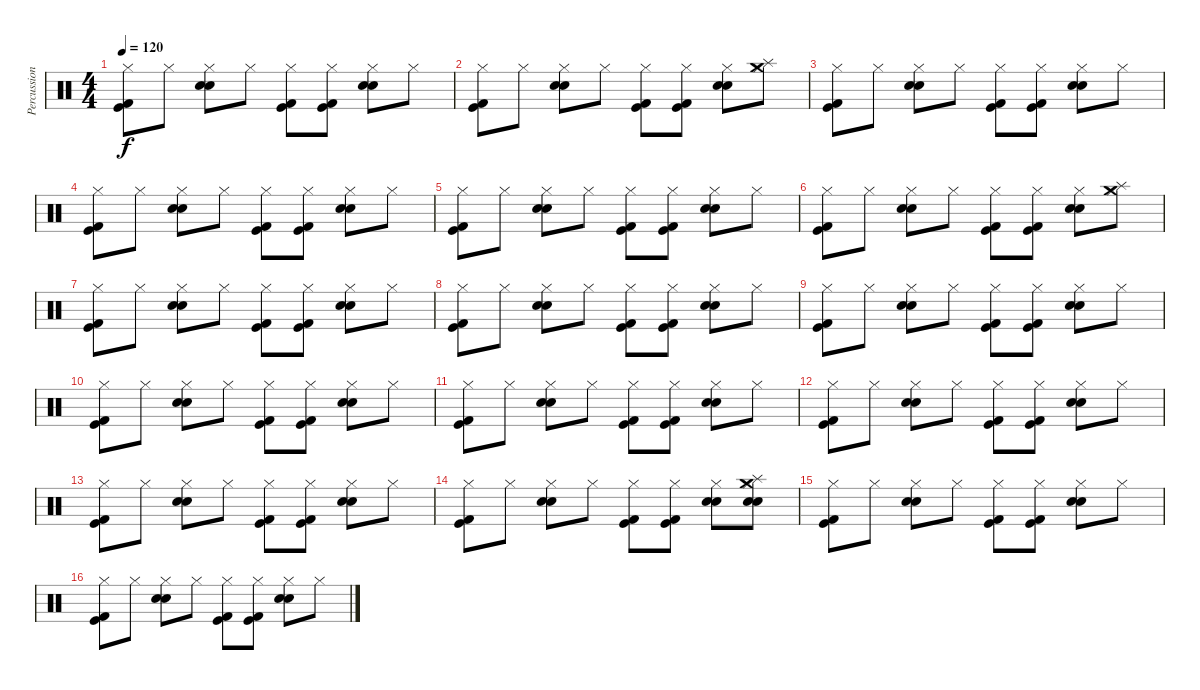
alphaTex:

\track ("Percussions" "Percussion") {instrument percussion}
\staff {score}
\articulation defaults
\ts (4 4)
\tempo 120
\clef neutral
\ks c
("Hi-Hat (closed)" "Kick (hit)" "Kick (hit) 2").8{dy f} "Hi-Hat (closed)".8 ("Hi-Hat (closed)" "Snare (hit) 2" "Electric Snare (hit)").8 "Hi-Hat (closed)".8 ("Hi-Hat (closed)" "Kick (hit)" "Kick (hit) 2").8 ("Hi-Hat (closed)" "Kick (hit)" "Kick (hit) 2").8 ("Hi-Hat (closed)" "Snare (hit) 2" "Electric Snare (hit)").8 "Hi-Hat (closed)".8 |
("Hi-Hat (closed)" "Kick (hit)" "Kick (hit) 2").8 "Hi-Hat (closed)".8 ("Hi-Hat (closed)" "Snare (hit) 2" "Electric Snare (hit)").8 "Hi-Hat (closed)".8 ("Hi-Hat (closed)" "Kick (hit)" "Kick (hit) 2").8 ("Hi-Hat (closed)" "Kick (hit)" "Kick (hit) 2").8 ("Hi-Hat (closed)" "Snare (hit) 2" "Electric Snare (hit)").8 ("Hi-Hat (closed)" "Splash (hit)" "Crash medium (hit)").8 |
("Hi-Hat (closed)" "Kick (hit)" "Kick (hit) 2").8 "Hi-Hat (closed)".8 ("Hi-Hat (closed)" "Snare (hit) 2" "Electric Snare (hit)").8 "Hi-Hat (closed)".8 ("Hi-Hat (closed)" "Kick (hit)" "Kick (hit) 2").8 ("Hi-Hat (closed)" "Kick (hit)" "Kick (hit) 2").8 ("Hi-Hat (closed)" "Snare (hit) 2" "Electric Snare (hit)").8 "Hi-Hat (closed)".8 |
("Hi-Hat (closed)" "Kick (hit)" "Kick (hit) 2").8 "Hi-Hat (closed)".8 ("Hi-Hat (closed)" "Snare (hit) 2" "Electric Snare (hit)").8 "Hi-Hat (closed)".8 ("Hi-Hat (closed)" "Kick (hit)" "Kick (hit) 2").8 ("Hi-Hat (closed)" "Kick (hit)" "Kick (hit) 2").8 ("Hi-Hat (closed)" "Snare (hit) 2" "Electric Snare (hit)").8 "Hi-Hat (closed)".8 |
("Hi-Hat (closed)" "Kick (hit)" "Kick (hit) 2").8 "Hi-Hat (closed)".8 ("Hi-Hat (closed)" "Snare (hit) 2" "Electric Snare (hit)").8 "Hi-Hat (closed)".8 ("Hi-Hat (closed)" "Kick (hit)" "Kick (hit) 2").8 ("Hi-Hat (closed)" "Kick (hit)" "Kick (hit) 2").8 ("Hi-Hat (closed)" "Snare (hit) 2" "Electric Snare (hit)").8 "Hi-Hat (closed)".8 |
("Hi-Hat (closed)" "Kick (hit)" "Kick (hit) 2").8 "Hi-Hat (closed)".8 ("Hi-Hat (closed)" "Snare (hit) 2" "Electric Snare (hit)").8 "Hi-Hat (closed)".8 ("Hi-Hat (closed)" "Kick (hit)" "Kick (hit) 2").8 ("Hi-Hat (closed)" "Kick (hit)" "Kick (hit) 2").8 ("Hi-Hat (closed)" "Snare (hit) 2" "Electric Snare (hit)").8 ("Hi-Hat (closed)" "Splash (hit)" "Crash medium (hit)").8 |
("Hi-Hat (closed)" "Kick (hit)" "Kick (hit) 2").8 "Hi-Hat (closed)".8 ("Hi-Hat (closed)" "Snare (hit) 2" "Electric Snare (hit)").8 "Hi-Hat (closed)".8 ("Hi-Hat (closed)" "Kick (hit)" "Kick (hit) 2").8 ("Hi-Hat (closed)" "Kick (hit)" "Kick (hit) 2").8 ("Hi-Hat (closed)" "Snare (hit) 2" "Electric Snare (hit)").8 "Hi-Hat (closed)".8 |
("Hi-Hat (closed)" "Kick (hit)" "Kick (hit) 2").8 "Hi-Hat (closed)".8 ("Hi-Hat (closed)" "Snare (hit) 2" "Electric Snare (hit)").8 "Hi-Hat (closed)".8 ("Hi-Hat (closed)" "Kick (hit)" "Kick (hit) 2").8 ("Hi-Hat (closed)" "Kick (hit)" "Kick (hit) 2").8 ("Hi-Hat (closed)" "Snare (hit) 2" "Electric Snare (hit)").8 "Hi-Hat (closed)".8 |
("Hi-Hat (closed)" "Kick (hit)" "Kick (hit) 2").8 "Hi-Hat (closed)".8 ("Hi-Hat (closed)" "Snare (hit) 2" "Electric Snare (hit)").8 "Hi-Hat (closed)".8 ("Hi-Hat (closed)" "Kick (hit)" "Kick (hit) 2").8 ("Hi-Hat (closed)" "Kick (hit)" "Kick (hit) 2").8 ("Hi-Hat (closed)" "Snare (hit) 2" "Electric Snare (hit)").8 "Hi-Hat (closed)".8 |
("Hi-Hat (closed)" "Kick (hit)" "Kick (hit) 2").8 "Hi-Hat (closed)".8 ("Hi-Hat (closed)" "Snare (hit) 2" "Electric Snare (hit)").8 "Hi-Hat (closed)".8 ("Hi-Hat (closed)" "Kick (hit)" "Kick (hit) 2").8 ("Hi-Hat (closed)" "Kick (hit)" "Kick (hit) 2").8 ("Hi-Hat (closed)" "Snare (hit) 2" "Electric Snare (hit)").8 "Hi-Hat (closed)".8 |
("Hi-Hat (closed)" "Kick (hit)" "Kick (hit) 2").8 "Hi-Hat (closed)".8 ("Hi-Hat (closed)" "Snare (hit) 2" "Electric Snare (hit)").8 "Hi-Hat (closed)".8 ("Hi-Hat (closed)" "Kick (hit)" "Kick (hit) 2").8 ("Hi-Hat (closed)" "Kick (hit)" "Kick (hit) 2").8 ("Hi-Hat (closed)" "Snare (hit) 2" "Electric Snare (hit)").8 "Hi-Hat (closed)".8 |
("Hi-Hat (closed)" "Kick (hit)" "Kick (hit) 2").8 "Hi-Hat (closed)".8 ("Hi-Hat (closed)" "Snare (hit) 2" "Electric Snare (hit)").8 "Hi-Hat (closed)".8 ("Hi-Hat (closed)" "Kick (hit)" "Kick (hit) 2").8 ("Hi-Hat (closed)" "Kick (hit)" "Kick (hit) 2").8 ("Hi-Hat (closed)" "Snare (hit) 2" "Electric Snare (hit)").8 "Hi-Hat (closed)".8 |
("Hi-Hat (closed)" "Kick (hit)" "Kick (hit) 2").8 "Hi-Hat (closed)".8 ("Hi-Hat (closed)" "Snare (hit) 2" "Electric Snare (hit)").8 "Hi-Hat (closed)".8 ("Hi-Hat (closed)" "Kick (hit)" "Kick (hit) 2").8 ("Hi-Hat (closed)" "Kick (hit)" "Kick (hit) 2").8 ("Hi-Hat (closed)" "Snare (hit) 2" "Electric Snare (hit)").8 "Hi-Hat (closed)".8 |
("Hi-Hat (closed)" "Kick (hit)" "Kick (hit) 2").8 "Hi-Hat (closed)".8 ("Hi-Hat (closed)" "Snare (hit) 2" "Electric Snare (hit)").8 "Hi-Hat (closed)".8 ("Hi-Hat (closed)" "Kick (hit)" "Kick (hit) 2").8 ("Hi-Hat (closed)" "Kick (hit)" "Kick (hit) 2").8 ("Hi-Hat (closed)" "Snare (hit) 2" "Electric Snare (hit)").8 ("Hi-Hat (closed)" "Crash medium (hit)" "Splash (hit)" "Snare (hit) 2" "Electric Snare (hit)").8 |
("Hi-Hat (closed)" "Kick (hit)" "Kick (hit) 2").8 "Hi-Hat (closed)".8 ("Hi-Hat (closed)" "Snare (hit) 2" "Electric Snare (hit)").8 "Hi-Hat (closed)".8 ("Hi-Hat (closed)" "Kick (hit)" "Kick (hit) 2").8 ("Hi-Hat (closed)" "Kick (hit)" "Kick (hit) 2").8 ("Hi-Hat (closed)" "Snare (hit) 2" "Electric Snare (hit)").8 "Hi-Hat (closed)".8 |
("Hi-Hat (closed)" "Kick (hit)" "Kick (hit) 2").8 "Hi-Hat (closed)".8 ("Hi-Hat (closed)" "Snare (hit) 2" "Electric Snare (hit)").8 "Hi-Hat (closed)".8 ("Hi-Hat (closed)" "Kick (hit)" "Kick (hit) 2").8 ("Hi-Hat (closed)" "Kick (hit)" "Kick (hit) 2").8 ("Hi-Hat (closed)" "Snare (hit) 2" "Electric Snare (hit)").8 "Hi-Hat (closed)".8
